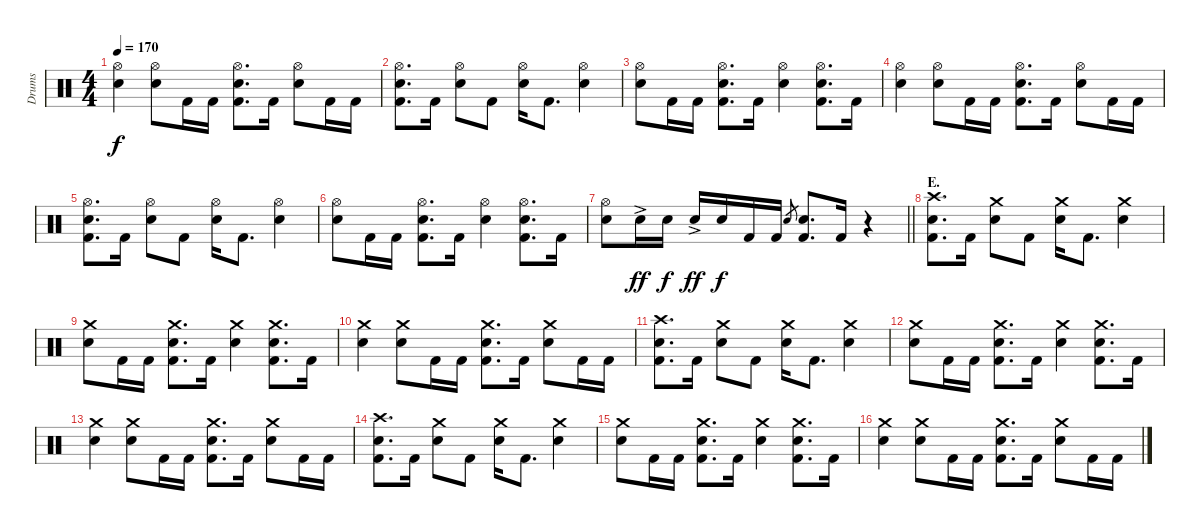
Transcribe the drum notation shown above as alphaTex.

\track ("Drums" "Drums") {instrument percussion}
\staff {score}
\articulation defaults
\ts (4 4)
\tempo 170
\clef neutral
\ks c
("Hi-Hat (open)" "Electric Snare (hit)").4{dy f} ("Hi-Hat (open)" "Electric Snare (hit)").8 "Kick (hit) 2".16 "Kick (hit) 2".16 ("Hi-Hat (open)" "Electric Snare (hit)" "Kick (hit) 2").8{d} "Kick (hit) 2".16 ("Hi-Hat (open)" "Electric Snare (hit)").8 "Kick (hit) 2".16 "Kick (hit) 2".16 |
("Hi-Hat (open)" "Electric Snare (hit)" "Kick (hit) 2").8{d} "Kick (hit) 2".16 ("Hi-Hat (open)" "Electric Snare (hit)").8 "Kick (hit) 2".8 ("Hi-Hat (open)" "Electric Snare (hit)").16 "Kick (hit) 2".8{d} ("Hi-Hat (open)" "Electric Snare (hit)").4 |
("Hi-Hat (open)" "Electric Snare (hit)").8 "Kick (hit) 2".16 "Kick (hit) 2".16 ("Hi-Hat (open)" "Electric Snare (hit)" "Kick (hit) 2").8{d} "Kick (hit) 2".16 ("Hi-Hat (open)" "Electric Snare (hit)").4 ("Hi-Hat (open)" "Electric Snare (hit)" "Kick (hit) 2").8{d} "Kick (hit) 2".16 |
("Hi-Hat (open)" "Electric Snare (hit)").4 ("Hi-Hat (open)" "Electric Snare (hit)").8 "Kick (hit) 2".16 "Kick (hit) 2".16 ("Hi-Hat (open)" "Electric Snare (hit)" "Kick (hit) 2").8{d} "Kick (hit) 2".16 ("Hi-Hat (open)" "Electric Snare (hit)").8 "Kick (hit) 2".16 "Kick (hit) 2".16 |
("Hi-Hat (open)" "Electric Snare (hit)" "Kick (hit) 2").8{d} "Kick (hit) 2".16 ("Hi-Hat (open)" "Electric Snare (hit)").8 "Kick (hit) 2".8 ("Hi-Hat (open)" "Electric Snare (hit)").16 "Kick (hit) 2".8{d} ("Hi-Hat (open)" "Electric Snare (hit)").4 |
("Hi-Hat (open)" "Electric Snare (hit)").8 "Kick (hit) 2".16 "Kick (hit) 2".16 ("Hi-Hat (open)" "Electric Snare (hit)" "Kick (hit) 2").8{d} "Kick (hit) 2".16 ("Hi-Hat (open)" "Electric Snare (hit)").4 ("Hi-Hat (open)" "Electric Snare (hit)" "Kick (hit) 2").8{d} "Kick (hit) 2".16 |
\barLineRight lightlight
("Hi-Hat (open)" "Electric Snare (hit)").8 "Electric Snare (hit)"{ac}.16{dy ff} "Electric Snare (hit)".16{dy f} "Electric Snare (hit)"{ac}.16{dy ff} "Electric Snare (hit)".16{dy f} "Kick (hit) 2".16 "Kick (hit) 2".16 "Electric Snare (hit)".8{gr} ("Electric Snare (hit)" "Kick (hit) 2").8{d} "Kick (hit) 2".16 r.4 |
\section ("" "E.")
("Crash high (hit)" "Electric Snare (hit)" "Kick (hit) 2").8{d} "Kick (hit) 2".16 ("Crash medium (hit)" "Electric Snare (hit)").8 "Kick (hit) 2".8 ("Crash medium (hit)" "Electric Snare (hit)").16 "Kick (hit) 2".8{d} ("Crash medium (hit)" "Electric Snare (hit)").4 |
("Crash medium (hit)" "Electric Snare (hit)").8 "Kick (hit) 2".16 "Kick (hit) 2".16 ("Crash medium (hit)" "Electric Snare (hit)" "Kick (hit) 2").8{d} "Kick (hit) 2".16 ("Crash medium (hit)" "Electric Snare (hit)").4 ("Crash medium (hit)" "Electric Snare (hit)" "Kick (hit) 2").8{d} "Kick (hit) 2".16 |
("Crash medium (hit)" "Electric Snare (hit)").4 ("Crash medium (hit)" "Electric Snare (hit)").8 "Kick (hit) 2".16 "Kick (hit) 2".16 ("Crash medium (hit)" "Electric Snare (hit)" "Kick (hit) 2").8{d} "Kick (hit) 2".16 ("Crash medium (hit)" "Electric Snare (hit)").8 "Kick (hit) 2".16 "Kick (hit) 2".16 |
("Crash high (hit)" "Electric Snare (hit)" "Kick (hit) 2").8{d} "Kick (hit) 2".16 ("Crash medium (hit)" "Electric Snare (hit)").8 "Kick (hit) 2".8 ("Crash medium (hit)" "Electric Snare (hit)").16 "Kick (hit) 2".8{d} ("Crash medium (hit)" "Electric Snare (hit)").4 |
("Crash medium (hit)" "Electric Snare (hit)").8 "Kick (hit) 2".16 "Kick (hit) 2".16 ("Crash medium (hit)" "Electric Snare (hit)" "Kick (hit) 2").8{d} "Kick (hit) 2".16 ("Crash medium (hit)" "Electric Snare (hit)").4 ("Crash medium (hit)" "Electric Snare (hit)" "Kick (hit) 2").8{d} "Kick (hit) 2".16 |
("Crash medium (hit)" "Electric Snare (hit)").4 ("Crash medium (hit)" "Electric Snare (hit)").8 "Kick (hit) 2".16 "Kick (hit) 2".16 ("Crash medium (hit)" "Electric Snare (hit)" "Kick (hit) 2").8{d} "Kick (hit) 2".16 ("Crash medium (hit)" "Electric Snare (hit)").8 "Kick (hit) 2".16 "Kick (hit) 2".16 |
("Crash high (hit)" "Electric Snare (hit)" "Kick (hit) 2").8{d} "Kick (hit) 2".16 ("Crash medium (hit)" "Electric Snare (hit)").8 "Kick (hit) 2".8 ("Crash medium (hit)" "Electric Snare (hit)").16 "Kick (hit) 2".8{d} ("Crash medium (hit)" "Electric Snare (hit)").4 |
("Crash medium (hit)" "Electric Snare (hit)").8 "Kick (hit) 2".16 "Kick (hit) 2".16 ("Crash medium (hit)" "Electric Snare (hit)" "Kick (hit) 2").8{d} "Kick (hit) 2".16 ("Crash medium (hit)" "Electric Snare (hit)").4 ("Crash medium (hit)" "Electric Snare (hit)" "Kick (hit) 2").8{d} "Kick (hit) 2".16 |
("Crash medium (hit)" "Electric Snare (hit)").4 ("Crash medium (hit)" "Electric Snare (hit)").8 "Kick (hit) 2".16 "Kick (hit) 2".16 ("Crash medium (hit)" "Electric Snare (hit)" "Kick (hit) 2").8{d} "Kick (hit) 2".16 ("Crash medium (hit)" "Electric Snare (hit)").8 "Kick (hit) 2".16 "Kick (hit) 2".16
